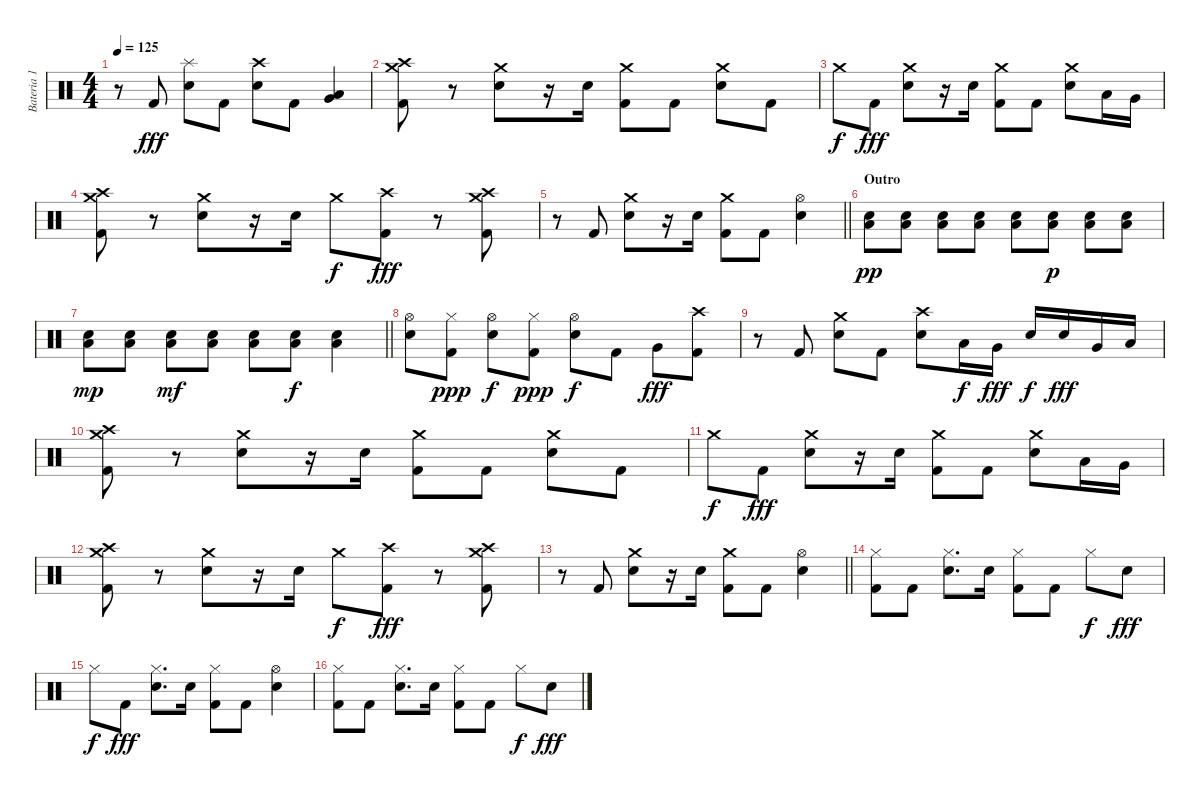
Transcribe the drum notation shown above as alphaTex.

\track ("Bateria 1" "Bateria 1") {instrument percussion}
\staff {score}
\articulation defaults
\ts (4 4)
\tempo 125
\clef neutral
\ks c
r.8{dy fff} "Kick (hit) 2".8 ("Splash (hit)" "Electric Snare (hit)").8 "Kick (hit) 2".8 ("Crash high (hit)" "Electric Snare (hit)").8 "Kick (hit) 2".8 ("Very Low Tom (hit)" "Low Floor Tom (hit)").4 |
("Crash high (hit)" "Crash medium (hit)" "Kick (hit) 2").8 r.8 ("Crash medium (hit)" "Electric Snare (hit)").8 r.16 "Electric Snare (hit)".16 ("Crash medium (hit)" "Kick (hit) 2").8 "Kick (hit) 2".8 ("Crash medium (hit)" "Electric Snare (hit)").8 "Kick (hit) 2".8 |
"Crash medium (hit)".8{dy f} "Kick (hit) 2".8{dy fff} ("Crash medium (hit)" "Electric Snare (hit)").8 r.16 "Electric Snare (hit)".16 ("Crash medium (hit)" "Kick (hit) 2").8 "Kick (hit) 2".8 ("Crash medium (hit)" "Electric Snare (hit)").8 "Low Tom (hit)".16 "Very Low Tom (hit)".16 |
("Crash high (hit)" "Crash medium (hit)" "Kick (hit) 2").8 r.8 ("Crash medium (hit)" "Electric Snare (hit)").8 r.16 "Electric Snare (hit)".16 "Crash medium (hit)".8{dy f} ("Crash high (hit)" "Kick (hit) 2").8{dy fff} r.8 ("Crash high (hit)" "Crash medium (hit)" "Kick (hit) 2").8 |
\barLineRight lightlight
r.8 "Kick (hit) 2".8 ("Crash medium (hit)" "Electric Snare (hit)").8 r.16 "Electric Snare (hit)".16 ("Crash medium (hit)" "Kick (hit) 2").8 "Kick (hit) 2".8 ("Hi-Hat (open)" "Electric Snare (hit)").4 |
\section ("" "Outro")
("Low Floor Tom (hit)" "Electric Snare (hit)").8{dy pp} ("Low Floor Tom (hit)" "Electric Snare (hit)").8 ("Low Floor Tom (hit)" "Electric Snare (hit)").8 ("Low Floor Tom (hit)" "Electric Snare (hit)").8 ("Low Floor Tom (hit)" "Electric Snare (hit)").8 ("Low Floor Tom (hit)" "Electric Snare (hit)").8{dy p} ("Low Floor Tom (hit)" "Electric Snare (hit)").8 ("Low Floor Tom (hit)" "Electric Snare (hit)").8 |
\barLineRight lightlight
("Low Floor Tom (hit)" "Electric Snare (hit)").8{dy mp} ("Low Floor Tom (hit)" "Electric Snare (hit)").8 ("Low Floor Tom (hit)" "Electric Snare (hit)").8{dy mf} ("Low Floor Tom (hit)" "Electric Snare (hit)").8 ("Low Floor Tom (hit)" "Electric Snare (hit)").8 ("Low Floor Tom (hit)" "Electric Snare (hit)").8{dy f} ("Low Floor Tom (hit)" "Electric Snare (hit)").4 |
("Hi-Hat (open)" "Electric Snare (hit)").8 ("Hi-Hat (closed)" "Kick (hit) 2").8{dy ppp} ("Hi-Hat (open)" "Electric Snare (hit)").8{dy f} ("Hi-Hat (closed)" "Kick (hit) 2").8{dy ppp} ("Hi-Hat (open)" "Electric Snare (hit)").8{dy f} "Kick (hit) 2".8 "Very Low Tom (hit)".8{dy fff} ("Crash high (hit)" "Kick (hit) 2").8 |
r.8 "Kick (hit) 2".8 ("Crash medium (hit)" "Electric Snare (hit)").8 "Kick (hit) 2".8 ("Crash high (hit)" "Electric Snare (hit)").8 "Low Floor Tom (hit)".16{dy f} "Very Low Tom (hit)".16{dy fff} "Electric Snare (hit)".16{dy f} "Electric Snare (hit)".16{dy fff} "Very Low Tom (hit)".16 "Low Floor Tom (hit)".16 |
("Crash high (hit)" "Crash medium (hit)" "Kick (hit) 2").8 r.8 ("Crash medium (hit)" "Electric Snare (hit)").8 r.16 "Electric Snare (hit)".16 ("Crash medium (hit)" "Kick (hit) 2").8 "Kick (hit) 2".8 ("Crash medium (hit)" "Electric Snare (hit)").8 "Kick (hit) 2".8 |
"Crash medium (hit)".8{dy f} "Kick (hit) 2".8{dy fff} ("Crash medium (hit)" "Electric Snare (hit)").8 r.16 "Electric Snare (hit)".16 ("Crash medium (hit)" "Kick (hit) 2").8 "Kick (hit) 2".8 ("Crash medium (hit)" "Electric Snare (hit)").8 "Low Tom (hit)".16 "Very Low Tom (hit)".16 |
("Crash high (hit)" "Crash medium (hit)" "Kick (hit) 2").8 r.8 ("Crash medium (hit)" "Electric Snare (hit)").8 r.16 "Electric Snare (hit)".16 "Crash medium (hit)".8{dy f} ("Crash high (hit)" "Kick (hit) 2").8{dy fff} r.8 ("Crash high (hit)" "Crash medium (hit)" "Kick (hit) 2").8 |
\barLineRight lightlight
r.8 "Kick (hit) 2".8 ("Crash medium (hit)" "Electric Snare (hit)").8 r.16 "Electric Snare (hit)".16 ("Crash medium (hit)" "Kick (hit) 2").8 "Kick (hit) 2".8 ("Hi-Hat (open)" "Electric Snare (hit)").4 |
("Hi-Hat (closed)" "Kick (hit) 2").8 "Kick (hit) 2".8 ("Hi-Hat (closed)" "Electric Snare (hit)").8{d} "Electric Snare (hit)".16 ("Hi-Hat (closed)" "Kick (hit) 2").8 "Kick (hit) 2".8 "Hi-Hat (closed)".8{dy f} "Electric Snare (hit)".8{dy fff} |
"Hi-Hat (closed)".8{dy f} "Kick (hit) 2".8{dy fff} ("Hi-Hat (closed)" "Electric Snare (hit)").8{d} "Electric Snare (hit)".16 ("Hi-Hat (closed)" "Kick (hit) 2").8 "Kick (hit) 2".8 ("Hi-Hat (open)" "Electric Snare (hit)").4 |
("Hi-Hat (closed)" "Kick (hit) 2").8 "Kick (hit) 2".8 ("Hi-Hat (closed)" "Electric Snare (hit)").8{d} "Electric Snare (hit)".16 ("Hi-Hat (closed)" "Kick (hit) 2").8 "Kick (hit) 2".8 "Hi-Hat (closed)".8{dy f} "Electric Snare (hit)".8{dy fff}
